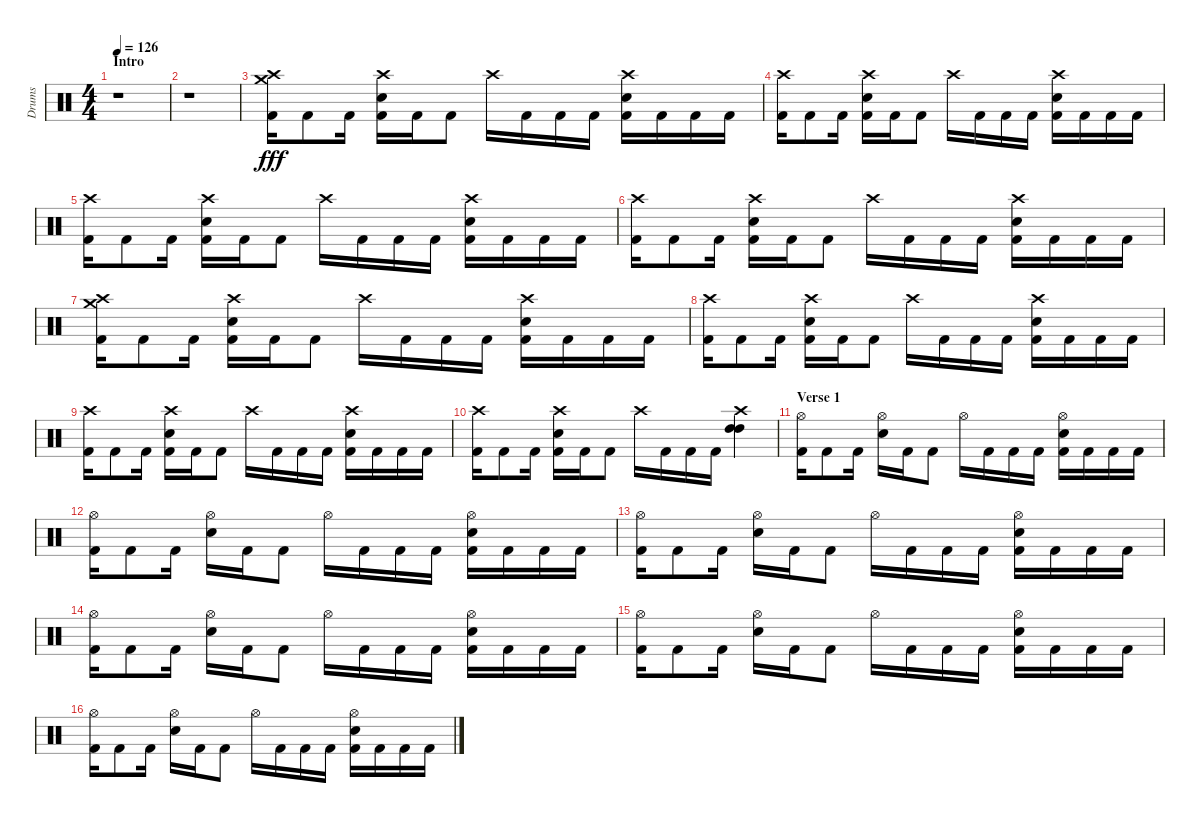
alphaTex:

\track ("Drums" "Drums") {instrument percussion}
\staff {score}
\articulation defaults
\ts (4 4)
\section ("" "Intro")
\tempo 126
\clef neutral
\ks c
r.1{dy fff} |
r.1 |
("Crash high (hit)" "Crash medium (hit)" "Kick (hit) 2").16 "Kick (hit) 2".8 "Kick (hit) 2".16 ("Crash high (hit)" "Electric Snare (hit)" "Kick (hit) 2").16 "Kick (hit) 2".16 "Kick (hit) 2".8 "Crash high (hit)".16 "Kick (hit) 2".16 "Kick (hit) 2".16 "Kick (hit) 2".16 ("Crash high (hit)" "Electric Snare (hit)" "Kick (hit) 2").16 "Kick (hit) 2".16 "Kick (hit) 2".16 "Kick (hit) 2".16 |
("Crash high (hit)" "Kick (hit) 2").16 "Kick (hit) 2".8 "Kick (hit) 2".16 ("Crash high (hit)" "Electric Snare (hit)" "Kick (hit) 2").16 "Kick (hit) 2".16 "Kick (hit) 2".8 "Crash high (hit)".16 "Kick (hit) 2".16 "Kick (hit) 2".16 "Kick (hit) 2".16 ("Crash high (hit)" "Electric Snare (hit)" "Kick (hit) 2").16 "Kick (hit) 2".16 "Kick (hit) 2".16 "Kick (hit) 2".16 |
("Crash high (hit)" "Kick (hit) 2").16 "Kick (hit) 2".8 "Kick (hit) 2".16 ("Crash high (hit)" "Electric Snare (hit)" "Kick (hit) 2").16 "Kick (hit) 2".16 "Kick (hit) 2".8 "Crash high (hit)".16 "Kick (hit) 2".16 "Kick (hit) 2".16 "Kick (hit) 2".16 ("Crash high (hit)" "Electric Snare (hit)" "Kick (hit) 2").16 "Kick (hit) 2".16 "Kick (hit) 2".16 "Kick (hit) 2".16 |
("Crash high (hit)" "Kick (hit) 2").16 "Kick (hit) 2".8 "Kick (hit) 2".16 ("Crash high (hit)" "Electric Snare (hit)" "Kick (hit) 2").16 "Kick (hit) 2".16 "Kick (hit) 2".8 "Crash high (hit)".16 "Kick (hit) 2".16 "Kick (hit) 2".16 "Kick (hit) 2".16 ("Crash high (hit)" "Electric Snare (hit)" "Kick (hit) 2").16 "Kick (hit) 2".16 "Kick (hit) 2".16 "Kick (hit) 2".16 |
("Crash high (hit)" "Crash medium (hit)" "Kick (hit) 2").16 "Kick (hit) 2".8 "Kick (hit) 2".16 ("Crash high (hit)" "Electric Snare (hit)" "Kick (hit) 2").16 "Kick (hit) 2".16 "Kick (hit) 2".8 "Crash high (hit)".16 "Kick (hit) 2".16 "Kick (hit) 2".16 "Kick (hit) 2".16 ("Crash high (hit)" "Electric Snare (hit)" "Kick (hit) 2").16 "Kick (hit) 2".16 "Kick (hit) 2".16 "Kick (hit) 2".16 |
("Crash high (hit)" "Kick (hit) 2").16 "Kick (hit) 2".8 "Kick (hit) 2".16 ("Crash high (hit)" "Electric Snare (hit)" "Kick (hit) 2").16 "Kick (hit) 2".16 "Kick (hit) 2".8 "Crash high (hit)".16 "Kick (hit) 2".16 "Kick (hit) 2".16 "Kick (hit) 2".16 ("Crash high (hit)" "Electric Snare (hit)" "Kick (hit) 2").16 "Kick (hit) 2".16 "Kick (hit) 2".16 "Kick (hit) 2".16 |
("Crash high (hit)" "Kick (hit) 2").16 "Kick (hit) 2".8 "Kick (hit) 2".16 ("Crash high (hit)" "Electric Snare (hit)" "Kick (hit) 2").16 "Kick (hit) 2".16 "Kick (hit) 2".8 "Crash high (hit)".16 "Kick (hit) 2".16 "Kick (hit) 2".16 "Kick (hit) 2".16 ("Crash high (hit)" "Electric Snare (hit)" "Kick (hit) 2").16 "Kick (hit) 2".16 "Kick (hit) 2".16 "Kick (hit) 2".16 |
("Crash high (hit)" "Kick (hit) 2").16 "Kick (hit) 2".8 "Kick (hit) 2".16 ("Crash high (hit)" "Electric Snare (hit)" "Kick (hit) 2").16 "Kick (hit) 2".16 "Kick (hit) 2".8 "Crash high (hit)".16 "Kick (hit) 2".16 "Kick (hit) 2".16 "Kick (hit) 2".16 ("Crash high (hit)" "High Tom (hit)" "High Tom (hit)").4 |
\section ("" "Verse 1")
("Hi-Hat (open)" "Kick (hit) 2").16 "Kick (hit) 2".8 "Kick (hit) 2".16 ("Hi-Hat (open)" "Electric Snare (hit)").16 "Kick (hit) 2".16 "Kick (hit) 2".8 "Hi-Hat (open)".16 "Kick (hit) 2".16 "Kick (hit) 2".16 "Kick (hit) 2".16 ("Hi-Hat (open)" "Electric Snare (hit)" "Kick (hit) 2").16 "Kick (hit) 2".16 "Kick (hit) 2".16 "Kick (hit) 2".16 |
("Hi-Hat (open)" "Kick (hit) 2").16 "Kick (hit) 2".8 "Kick (hit) 2".16 ("Hi-Hat (open)" "Electric Snare (hit)").16 "Kick (hit) 2".16 "Kick (hit) 2".8 "Hi-Hat (open)".16 "Kick (hit) 2".16 "Kick (hit) 2".16 "Kick (hit) 2".16 ("Hi-Hat (open)" "Electric Snare (hit)" "Kick (hit) 2").16 "Kick (hit) 2".16 "Kick (hit) 2".16 "Kick (hit) 2".16 |
("Hi-Hat (open)" "Kick (hit) 2").16 "Kick (hit) 2".8 "Kick (hit) 2".16 ("Hi-Hat (open)" "Electric Snare (hit)").16 "Kick (hit) 2".16 "Kick (hit) 2".8 "Hi-Hat (open)".16 "Kick (hit) 2".16 "Kick (hit) 2".16 "Kick (hit) 2".16 ("Hi-Hat (open)" "Electric Snare (hit)" "Kick (hit) 2").16 "Kick (hit) 2".16 "Kick (hit) 2".16 "Kick (hit) 2".16 |
("Hi-Hat (open)" "Kick (hit) 2").16 "Kick (hit) 2".8 "Kick (hit) 2".16 ("Hi-Hat (open)" "Electric Snare (hit)").16 "Kick (hit) 2".16 "Kick (hit) 2".8 "Hi-Hat (open)".16 "Kick (hit) 2".16 "Kick (hit) 2".16 "Kick (hit) 2".16 ("Hi-Hat (open)" "Electric Snare (hit)" "Kick (hit) 2").16 "Kick (hit) 2".16 "Kick (hit) 2".16 "Kick (hit) 2".16 |
("Hi-Hat (open)" "Kick (hit) 2").16 "Kick (hit) 2".8 "Kick (hit) 2".16 ("Hi-Hat (open)" "Electric Snare (hit)").16 "Kick (hit) 2".16 "Kick (hit) 2".8 "Hi-Hat (open)".16 "Kick (hit) 2".16 "Kick (hit) 2".16 "Kick (hit) 2".16 ("Hi-Hat (open)" "Electric Snare (hit)" "Kick (hit) 2").16 "Kick (hit) 2".16 "Kick (hit) 2".16 "Kick (hit) 2".16 |
("Hi-Hat (open)" "Kick (hit) 2").16 "Kick (hit) 2".8 "Kick (hit) 2".16 ("Hi-Hat (open)" "Electric Snare (hit)").16 "Kick (hit) 2".16 "Kick (hit) 2".8 "Hi-Hat (open)".16 "Kick (hit) 2".16 "Kick (hit) 2".16 "Kick (hit) 2".16 ("Hi-Hat (open)" "Electric Snare (hit)" "Kick (hit) 2").16 "Kick (hit) 2".16 "Kick (hit) 2".16 "Kick (hit) 2".16
